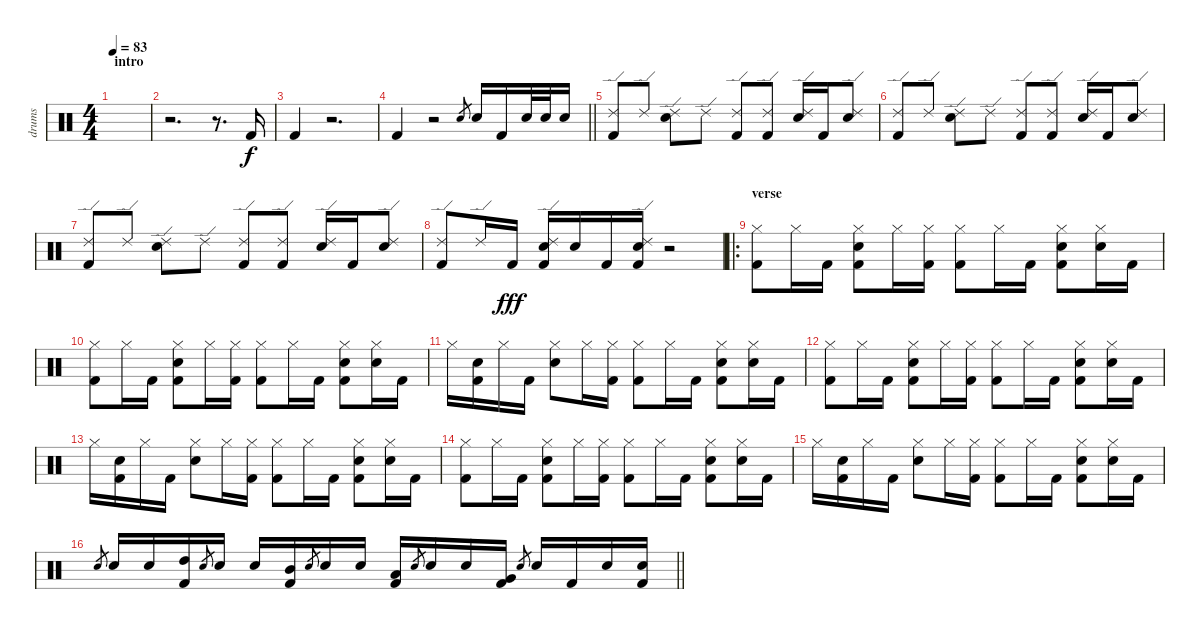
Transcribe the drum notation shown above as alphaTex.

\track ("drums" "drums") {instrument percussion}
\staff {score}
\articulation defaults
\ts (4 4)
\section ("" "intro")
\tempo 83
\clef neutral
\ks c
|
r.2{d} r.8{d} "Kick (hit) 2".16 |
"Kick (hit) 2".4 r.2{d} |
\barLineRight lightlight "Kick (hit) 2".4
r.2 "Snare (hit) 2".8{gr} "Snare (hit) 2".16 "Kick (hit) 2".16 "Snare (hit) 2".32 "Snare (hit) 2".32 "Snare (hit) 2".16 |
("Ride (edge) 2" "Kick (hit) 2").8 "Ride (edge) 2".8 ("Ride (edge) 2" "Snare (hit) 2").8 "Ride (edge) 2".8 ("Ride (edge) 2" "Kick (hit) 2").8 ("Ride (edge) 2" "Kick (hit) 2").8 ("Ride (edge) 2" "Snare (hit) 2").16 "Kick (hit) 2".16 ("Ride (edge) 2" "Snare (hit) 2").8 |
("Ride (edge) 2" "Kick (hit) 2").8 "Ride (edge) 2".8 ("Ride (edge) 2" "Snare (hit) 2").8 "Ride (edge) 2".8 ("Ride (edge) 2" "Kick (hit) 2").8 ("Ride (edge) 2" "Kick (hit) 2").8 ("Ride (edge) 2" "Snare (hit) 2").16 "Kick (hit) 2".16 ("Ride (edge) 2" "Snare (hit) 2").8 |
("Ride (edge) 2" "Kick (hit) 2").8 "Ride (edge) 2".8 ("Ride (edge) 2" "Snare (hit) 2").8 "Ride (edge) 2".8 ("Ride (edge) 2" "Kick (hit) 2").8 ("Ride (edge) 2" "Kick (hit) 2").8 ("Ride (edge) 2" "Snare (hit) 2").16 "Kick (hit) 2".16 ("Ride (edge) 2" "Snare (hit) 2").8 |
("Ride (edge) 2" "Kick (hit) 2").8 "Ride (edge) 2".16 "Kick (hit) 2".16{dy fff} ("Ride (edge) 2" "Snare (hit) 2" "Kick (hit) 2").16 "Snare (hit) 2".16 "Kick (hit) 2".16 ("Ride (edge) 2" "Snare (hit) 2" "Kick (hit) 2").16 r.2 |
\ro
\section ("" "verse")
("Hi-Hat (closed)" "Kick (hit) 2").8 "Hi-Hat (closed)".16 "Kick (hit) 2".16 ("Hi-Hat (closed)" "Snare (hit) 2" "Kick (hit) 2").8 "Hi-Hat (closed)".16 ("Hi-Hat (closed)" "Kick (hit) 2").16 ("Hi-Hat (closed)" "Kick (hit) 2").8 "Hi-Hat (closed)".16 "Kick (hit) 2".16 ("Hi-Hat (closed)" "Snare (hit) 2" "Kick (hit) 2").8 ("Hi-Hat (closed)" "Snare (hit) 2").16 "Kick (hit) 2".16 |
("Hi-Hat (closed)" "Kick (hit) 2").8 "Hi-Hat (closed)".16 "Kick (hit) 2".16 ("Hi-Hat (closed)" "Snare (hit) 2" "Kick (hit) 2").8 "Hi-Hat (closed)".16 ("Hi-Hat (closed)" "Kick (hit) 2").16 ("Hi-Hat (closed)" "Kick (hit) 2").8 "Hi-Hat (closed)".16 "Kick (hit) 2".16 ("Hi-Hat (closed)" "Snare (hit) 2" "Kick (hit) 2").8 ("Hi-Hat (closed)" "Snare (hit) 2").16 "Kick (hit) 2".16 |
"Hi-Hat (closed)".16 ("Snare (hit) 2" "Kick (hit) 2").16 "Hi-Hat (closed)".16 "Kick (hit) 2".16 ("Hi-Hat (closed)" "Snare (hit) 2").8 "Hi-Hat (closed)".16 ("Hi-Hat (closed)" "Kick (hit) 2").16 ("Hi-Hat (closed)" "Kick (hit) 2").8 "Hi-Hat (closed)".16 "Kick (hit) 2".16 ("Hi-Hat (closed)" "Snare (hit) 2" "Kick (hit) 2").8 ("Hi-Hat (closed)" "Snare (hit) 2").16 "Kick (hit) 2".16 |
("Hi-Hat (closed)" "Kick (hit) 2").8 "Hi-Hat (closed)".16 "Kick (hit) 2".16 ("Hi-Hat (closed)" "Snare (hit) 2" "Kick (hit) 2").8 "Hi-Hat (closed)".16 ("Hi-Hat (closed)" "Kick (hit) 2").16 ("Hi-Hat (closed)" "Kick (hit) 2").8 "Hi-Hat (closed)".16 "Kick (hit) 2".16 ("Hi-Hat (closed)" "Snare (hit) 2" "Kick (hit) 2").8 ("Hi-Hat (closed)" "Snare (hit) 2").16 "Kick (hit) 2".16 |
"Hi-Hat (closed)".16 ("Snare (hit) 2" "Kick (hit) 2").16 "Hi-Hat (closed)".16 "Kick (hit) 2".16 ("Hi-Hat (closed)" "Snare (hit) 2").8 "Hi-Hat (closed)".16 ("Hi-Hat (closed)" "Kick (hit) 2").16 ("Hi-Hat (closed)" "Kick (hit) 2").8 "Hi-Hat (closed)".16 "Kick (hit) 2".16 ("Hi-Hat (closed)" "Snare (hit) 2" "Kick (hit) 2").8 ("Hi-Hat (closed)" "Snare (hit) 2").16 "Kick (hit) 2".16 |
("Hi-Hat (closed)" "Kick (hit) 2").8 "Hi-Hat (closed)".16 "Kick (hit) 2".16 ("Hi-Hat (closed)" "Snare (hit) 2" "Kick (hit) 2").8 "Hi-Hat (closed)".16 ("Hi-Hat (closed)" "Kick (hit) 2").16 ("Hi-Hat (closed)" "Kick (hit) 2").8 "Hi-Hat (closed)".16 "Kick (hit) 2".16 ("Hi-Hat (closed)" "Snare (hit) 2" "Kick (hit) 2").8 ("Hi-Hat (closed)" "Snare (hit) 2").16 "Kick (hit) 2".16 |
"Hi-Hat (closed)".16 ("Snare (hit) 2" "Kick (hit) 2").16 "Hi-Hat (closed)".16 "Kick (hit) 2".16 ("Hi-Hat (closed)" "Snare (hit) 2").8 "Hi-Hat (closed)".16 ("Hi-Hat (closed)" "Kick (hit) 2").16 ("Hi-Hat (closed)" "Kick (hit) 2").8 "Hi-Hat (closed)".16 "Kick (hit) 2".16 ("Hi-Hat (closed)" "Snare (hit) 2" "Kick (hit) 2").8 ("Hi-Hat (closed)" "Snare (hit) 2").16 "Kick (hit) 2".16 |
\barLineRight lightlight "Snare (hit) 2".8{gr} "Snare (hit) 2".16 "Snare (hit) 2".16
("High Tom (hit)" "Kick (hit) 2").16 "Snare (hit) 2".8{gr} "Snare (hit) 2".16 "Snare (hit) 2".16 ("Mid Tom (hit)" "Kick (hit) 2").16 "Snare (hit) 2".8{gr} "Snare (hit) 2".16 "Snare (hit) 2".16 ("Low Tom (hit)" "Kick (hit) 2").16 "Snare (hit) 2".8{gr} "Snare (hit) 2".16 "Snare (hit) 2".16 ("Very Low Tom (hit)" "Kick (hit) 2").16 "Snare (hit) 2".8{gr} "Snare (hit) 2".16 "Kick (hit) 2".16 "Snare (hit) 2".16 ("Snare (hit) 2" "Kick (hit) 2").16
